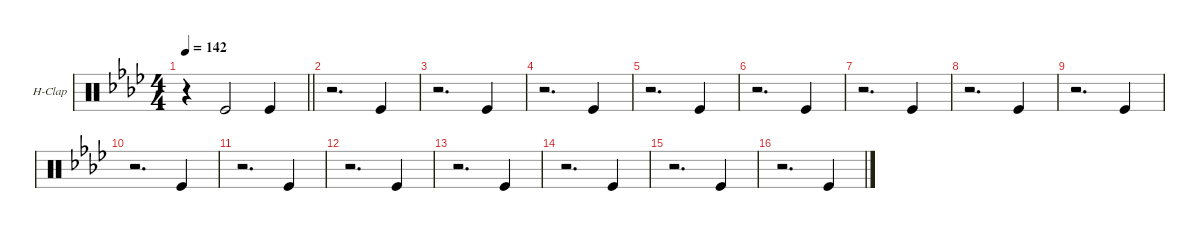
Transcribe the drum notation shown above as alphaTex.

\defaultSystemsLayout 4
\hideDynamics
\bracketExtendMode groupsimilarinstruments
\firstSystemTrackNameOrientation horizontal
\otherSystemsTrackNameOrientation horizontal
\track ("Hand Clap" "H-Clap") {multiBarRest instrument percussion}
\staff {score}
\articulation defaults
\ts (4 4)
\tempo 142
\clef neutral
\barLineRight lightlight
\ks ab
r.4{dy fff} "Kick (hit)".2 "Kick (hit)".4 |
r.2{d} "Kick (hit)".4 |
r.2{d} "Kick (hit)".4 |
r.2{d} "Kick (hit)".4 |
r.2{d} "Kick (hit)".4 |
r.2{d} "Kick (hit)".4 |
r.2{d} "Kick (hit)".4 |
r.2{d} "Kick (hit)".4 |
r.2{d} "Kick (hit)".4 |
r.2{d} "Kick (hit)".4 |
r.2{d} "Kick (hit)".4 |
r.2{d} "Kick (hit)".4 |
r.2{d} "Kick (hit)".4 |
r.2{d} "Kick (hit)".4 |
r.2{d} "Kick (hit)".4 |
r.2{d} "Kick (hit)".4
